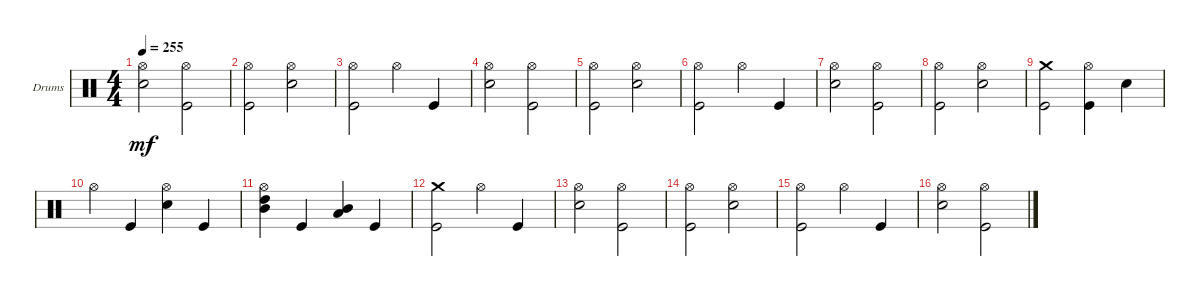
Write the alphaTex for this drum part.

\bracketExtendMode groupsimilarinstruments
\firstSystemTrackNameOrientation horizontal
\otherSystemsTrackNameOrientation horizontal
\track ("Drums" "Drums") {instrument percussion}
\staff {score}
\articulation defaults
\ts (4 4)
\tempo 255
\clef neutral
\ks c
("Snare (hit) 2" "Hi-Hat (open)").2{dy mf} ("Kick (hit)" "Hi-Hat (open)").2 |
("Kick (hit)" "Hi-Hat (open)").2 ("Snare (hit) 2" "Hi-Hat (open)").2 |
("Kick (hit)" "Hi-Hat (open)").2 "Hi-Hat (open)".4 "Kick (hit)".4 |
("Snare (hit) 2" "Hi-Hat (open)").2 ("Kick (hit)" "Hi-Hat (open)").2 |
("Kick (hit)" "Hi-Hat (open)").2 ("Snare (hit) 2" "Hi-Hat (open)").2 |
("Kick (hit)" "Hi-Hat (open)").2 "Hi-Hat (open)".4 "Kick (hit)".4 |
("Snare (hit) 2" "Hi-Hat (open)").2 ("Kick (hit)" "Hi-Hat (open)").2 |
("Kick (hit)" "Hi-Hat (open)").2 ("Snare (hit) 2" "Hi-Hat (open)").2 |
("Kick (hit)" "Crash medium (hit)").2 ("Kick (hit)" "Hi-Hat (open)").4 "Snare (hit) 2".4 |
"Hi-Hat (open)".4 "Kick (hit)".4 ("Snare (hit) 2" "Hi-Hat (open)").4 "Kick (hit)".4 |
("Mid Tom (hit)" "High Tom (hit)" "Hi-Hat (open)").4 "Kick (hit)".4 ("Low Tom (hit)" "Mid Tom (hit)").4 "Kick (hit)".4 |
("Kick (hit)" "Crash medium (hit)").2 "Hi-Hat (open)".4 "Kick (hit)".4 |
("Snare (hit) 2" "Hi-Hat (open)").2 ("Kick (hit)" "Hi-Hat (open)").2 |
("Kick (hit)" "Hi-Hat (open)").2 ("Snare (hit) 2" "Hi-Hat (open)").2 |
("Kick (hit)" "Hi-Hat (open)").2 "Hi-Hat (open)".4 "Kick (hit)".4 |
("Snare (hit) 2" "Hi-Hat (open)").2 ("Kick (hit)" "Hi-Hat (open)").2
